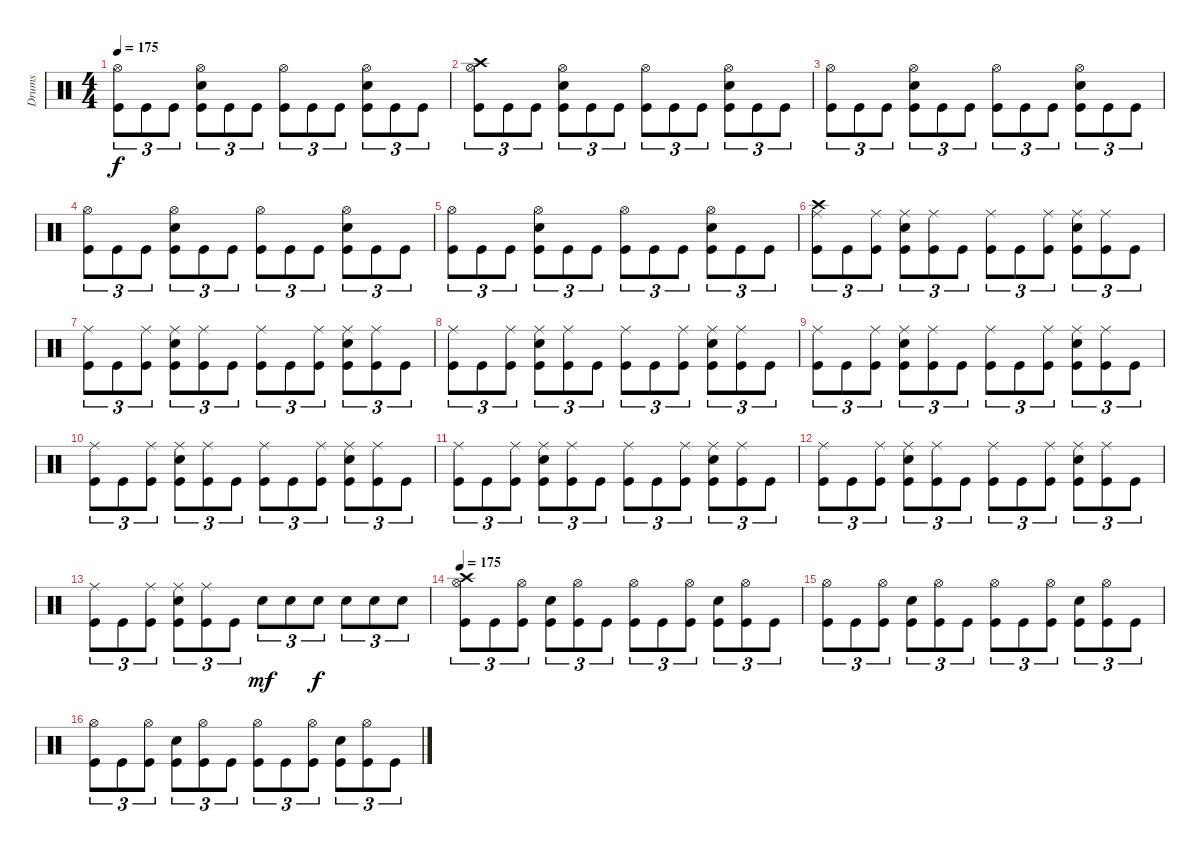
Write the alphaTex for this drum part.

\track ("Drums" "Drums") {instrument percussion}
\staff {score}
\articulation defaults
\ts (4 4)
\tempo 175
\clef neutral
\ks c
("Hi-Hat (open)" "Kick (hit)").8{tu (3 2) dy f} "Kick (hit)".8{tu (3 2)} "Kick (hit)".8{tu (3 2)} ("Hi-Hat (open)" "Electric Snare (hit)" "Kick (hit)").8{tu (3 2)} "Kick (hit)".8{tu (3 2)} "Kick (hit)".8{tu (3 2)} ("Hi-Hat (open)" "Kick (hit)").8{tu (3 2)} "Kick (hit)".8{tu (3 2)} "Kick (hit)".8{tu (3 2)} ("Hi-Hat (open)" "Electric Snare (hit)" "Kick (hit)").8{tu (3 2)} "Kick (hit)".8{tu (3 2)} "Kick (hit)".8{tu (3 2)} |
("Crash high (hit)" "Hi-Hat (open)" "Kick (hit)").8{tu (3 2)} "Kick (hit)".8{tu (3 2)} "Kick (hit)".8{tu (3 2)} ("Hi-Hat (open)" "Electric Snare (hit)" "Kick (hit)").8{tu (3 2)} "Kick (hit)".8{tu (3 2)} "Kick (hit)".8{tu (3 2)} ("Hi-Hat (open)" "Kick (hit)").8{tu (3 2)} "Kick (hit)".8{tu (3 2)} "Kick (hit)".8{tu (3 2)} ("Hi-Hat (open)" "Electric Snare (hit)" "Kick (hit)").8{tu (3 2)} "Kick (hit)".8{tu (3 2)} "Kick (hit)".8{tu (3 2)} |
("Hi-Hat (open)" "Kick (hit)").8{tu (3 2)} "Kick (hit)".8{tu (3 2)} "Kick (hit)".8{tu (3 2)} ("Hi-Hat (open)" "Electric Snare (hit)" "Kick (hit)").8{tu (3 2)} "Kick (hit)".8{tu (3 2)} "Kick (hit)".8{tu (3 2)} ("Hi-Hat (open)" "Kick (hit)").8{tu (3 2)} "Kick (hit)".8{tu (3 2)} "Kick (hit)".8{tu (3 2)} ("Hi-Hat (open)" "Electric Snare (hit)" "Kick (hit)").8{tu (3 2)} "Kick (hit)".8{tu (3 2)} "Kick (hit)".8{tu (3 2)} |
("Hi-Hat (open)" "Kick (hit)").8{tu (3 2)} "Kick (hit)".8{tu (3 2)} "Kick (hit)".8{tu (3 2)} ("Hi-Hat (open)" "Electric Snare (hit)" "Kick (hit)").8{tu (3 2)} "Kick (hit)".8{tu (3 2)} "Kick (hit)".8{tu (3 2)} ("Hi-Hat (open)" "Kick (hit)").8{tu (3 2)} "Kick (hit)".8{tu (3 2)} "Kick (hit)".8{tu (3 2)} ("Hi-Hat (open)" "Electric Snare (hit)" "Kick (hit)").8{tu (3 2)} "Kick (hit)".8{tu (3 2)} "Kick (hit)".8{tu (3 2)} |
("Hi-Hat (open)" "Kick (hit)").8{tu (3 2)} "Kick (hit)".8{tu (3 2)} "Kick (hit)".8{tu (3 2)} ("Hi-Hat (open)" "Electric Snare (hit)" "Kick (hit)").8{tu (3 2)} "Kick (hit)".8{tu (3 2)} "Kick (hit)".8{tu (3 2)} ("Hi-Hat (open)" "Kick (hit)").8{tu (3 2)} "Kick (hit)".8{tu (3 2)} "Kick (hit)".8{tu (3 2)} ("Hi-Hat (open)" "Electric Snare (hit)" "Kick (hit)").8{tu (3 2)} "Kick (hit)".8{tu (3 2)} "Kick (hit)".8{tu (3 2)} |
("Crash high (hit)" "Ride (middle)" "Kick (hit)").8{tu (3 2)} "Kick (hit)".8{tu (3 2)} ("Ride (middle)" "Kick (hit)").8{tu (3 2)} ("Ride (middle)" "Electric Snare (hit)" "Kick (hit)").8{tu (3 2)} ("Ride (middle)" "Kick (hit)").8{tu (3 2)} "Kick (hit)".8{tu (3 2)} ("Ride (middle)" "Kick (hit)").8{tu (3 2)} "Kick (hit)".8{tu (3 2)} ("Ride (middle)" "Kick (hit)").8{tu (3 2)} ("Ride (middle)" "Electric Snare (hit)" "Kick (hit)").8{tu (3 2)} ("Ride (middle)" "Kick (hit)").8{tu (3 2)} "Kick (hit)".8{tu (3 2)} |
("Ride (middle)" "Kick (hit)").8{tu (3 2)} "Kick (hit)".8{tu (3 2)} ("Ride (middle)" "Kick (hit)").8{tu (3 2)} ("Ride (middle)" "Electric Snare (hit)" "Kick (hit)").8{tu (3 2)} ("Ride (middle)" "Kick (hit)").8{tu (3 2)} "Kick (hit)".8{tu (3 2)} ("Ride (middle)" "Kick (hit)").8{tu (3 2)} "Kick (hit)".8{tu (3 2)} ("Ride (middle)" "Kick (hit)").8{tu (3 2)} ("Ride (middle)" "Electric Snare (hit)" "Kick (hit)").8{tu (3 2)} ("Ride (middle)" "Kick (hit)").8{tu (3 2)} "Kick (hit)".8{tu (3 2)} |
("Ride (middle)" "Kick (hit)").8{tu (3 2)} "Kick (hit)".8{tu (3 2)} ("Ride (middle)" "Kick (hit)").8{tu (3 2)} ("Ride (middle)" "Electric Snare (hit)" "Kick (hit)").8{tu (3 2)} ("Ride (middle)" "Kick (hit)").8{tu (3 2)} "Kick (hit)".8{tu (3 2)} ("Ride (middle)" "Kick (hit)").8{tu (3 2)} "Kick (hit)".8{tu (3 2)} ("Ride (middle)" "Kick (hit)").8{tu (3 2)} ("Ride (middle)" "Electric Snare (hit)" "Kick (hit)").8{tu (3 2)} ("Ride (middle)" "Kick (hit)").8{tu (3 2)} "Kick (hit)".8{tu (3 2)} |
("Ride (middle)" "Kick (hit)").8{tu (3 2)} "Kick (hit)".8{tu (3 2)} ("Ride (middle)" "Kick (hit)").8{tu (3 2)} ("Ride (middle)" "Electric Snare (hit)" "Kick (hit)").8{tu (3 2)} ("Ride (middle)" "Kick (hit)").8{tu (3 2)} "Kick (hit)".8{tu (3 2)} ("Ride (middle)" "Kick (hit)").8{tu (3 2)} "Kick (hit)".8{tu (3 2)} ("Ride (middle)" "Kick (hit)").8{tu (3 2)} ("Ride (middle)" "Electric Snare (hit)" "Kick (hit)").8{tu (3 2)} ("Ride (middle)" "Kick (hit)").8{tu (3 2)} "Kick (hit)".8{tu (3 2)} |
("Ride (middle)" "Kick (hit)").8{tu (3 2)} "Kick (hit)".8{tu (3 2)} ("Ride (middle)" "Kick (hit)").8{tu (3 2)} ("Ride (middle)" "Electric Snare (hit)" "Kick (hit)").8{tu (3 2)} ("Ride (middle)" "Kick (hit)").8{tu (3 2)} "Kick (hit)".8{tu (3 2)} ("Ride (middle)" "Kick (hit)").8{tu (3 2)} "Kick (hit)".8{tu (3 2)} ("Ride (middle)" "Kick (hit)").8{tu (3 2)} ("Ride (middle)" "Electric Snare (hit)" "Kick (hit)").8{tu (3 2)} ("Ride (middle)" "Kick (hit)").8{tu (3 2)} "Kick (hit)".8{tu (3 2)} |
("Ride (middle)" "Kick (hit)").8{tu (3 2)} "Kick (hit)".8{tu (3 2)} ("Ride (middle)" "Kick (hit)").8{tu (3 2)} ("Ride (middle)" "Electric Snare (hit)" "Kick (hit)").8{tu (3 2)} ("Ride (middle)" "Kick (hit)").8{tu (3 2)} "Kick (hit)".8{tu (3 2)} ("Ride (middle)" "Kick (hit)").8{tu (3 2)} "Kick (hit)".8{tu (3 2)} ("Ride (middle)" "Kick (hit)").8{tu (3 2)} ("Ride (middle)" "Electric Snare (hit)" "Kick (hit)").8{tu (3 2)} ("Ride (middle)" "Kick (hit)").8{tu (3 2)} "Kick (hit)".8{tu (3 2)} |
("Ride (middle)" "Kick (hit)").8{tu (3 2)} "Kick (hit)".8{tu (3 2)} ("Ride (middle)" "Kick (hit)").8{tu (3 2)} ("Ride (middle)" "Electric Snare (hit)" "Kick (hit)").8{tu (3 2)} ("Ride (middle)" "Kick (hit)").8{tu (3 2)} "Kick (hit)".8{tu (3 2)} ("Ride (middle)" "Kick (hit)").8{tu (3 2)} "Kick (hit)".8{tu (3 2)} ("Ride (middle)" "Kick (hit)").8{tu (3 2)} ("Ride (middle)" "Electric Snare (hit)" "Kick (hit)").8{tu (3 2)} ("Ride (middle)" "Kick (hit)").8{tu (3 2)} "Kick (hit)".8{tu (3 2)} |
("Ride (middle)" "Kick (hit)").8{tu (3 2)} "Kick (hit)".8{tu (3 2)} ("Ride (middle)" "Kick (hit)").8{tu (3 2)} ("Ride (middle)" "Electric Snare (hit)" "Kick (hit)").8{tu (3 2)} ("Ride (middle)" "Kick (hit)").8{tu (3 2)} "Kick (hit)".8{tu (3 2)} "Electric Snare (hit)".8{tu (3 2) dy mf} "Electric Snare (hit)".8{tu (3 2)} "Electric Snare (hit)".8{tu (3 2) dy f} "Electric Snare (hit)".8{tu (3 2)} "Electric Snare (hit)".8{tu (3 2)} "Electric Snare (hit)".8{tu (3 2)} |
\tempo 175
("Crash high (hit)" "Hi-Hat (open)" "Kick (hit)").8{tu (3 2)} "Kick (hit)".8{tu (3 2)} ("Hi-Hat (open)" "Kick (hit)").8{tu (3 2)} ("Electric Snare (hit)" "Kick (hit)").8{tu (3 2)} ("Hi-Hat (open)" "Kick (hit)").8{tu (3 2)} "Kick (hit)".8{tu (3 2)} ("Hi-Hat (open)" "Kick (hit)").8{tu (3 2)} "Kick (hit)".8{tu (3 2)} ("Hi-Hat (open)" "Kick (hit)").8{tu (3 2)} ("Electric Snare (hit)" "Kick (hit)").8{tu (3 2)} ("Hi-Hat (open)" "Kick (hit)").8{tu (3 2)} "Kick (hit)".8{tu (3 2)} |
("Hi-Hat (open)" "Kick (hit)").8{tu (3 2)} "Kick (hit)".8{tu (3 2)} ("Hi-Hat (open)" "Kick (hit)").8{tu (3 2)} ("Electric Snare (hit)" "Kick (hit)").8{tu (3 2)} ("Hi-Hat (open)" "Kick (hit)").8{tu (3 2)} "Kick (hit)".8{tu (3 2)} ("Hi-Hat (open)" "Kick (hit)").8{tu (3 2)} "Kick (hit)".8{tu (3 2)} ("Hi-Hat (open)" "Kick (hit)").8{tu (3 2)} ("Electric Snare (hit)" "Kick (hit)").8{tu (3 2)} ("Hi-Hat (open)" "Kick (hit)").8{tu (3 2)} "Kick (hit)".8{tu (3 2)} |
("Hi-Hat (open)" "Kick (hit)").8{tu (3 2)} "Kick (hit)".8{tu (3 2)} ("Hi-Hat (open)" "Kick (hit)").8{tu (3 2)} ("Electric Snare (hit)" "Kick (hit)").8{tu (3 2)} ("Hi-Hat (open)" "Kick (hit)").8{tu (3 2)} "Kick (hit)".8{tu (3 2)} ("Hi-Hat (open)" "Kick (hit)").8{tu (3 2)} "Kick (hit)".8{tu (3 2)} ("Hi-Hat (open)" "Kick (hit)").8{tu (3 2)} ("Electric Snare (hit)" "Kick (hit)").8{tu (3 2)} ("Hi-Hat (open)" "Kick (hit)").8{tu (3 2)} "Kick (hit)".8{tu (3 2)}
